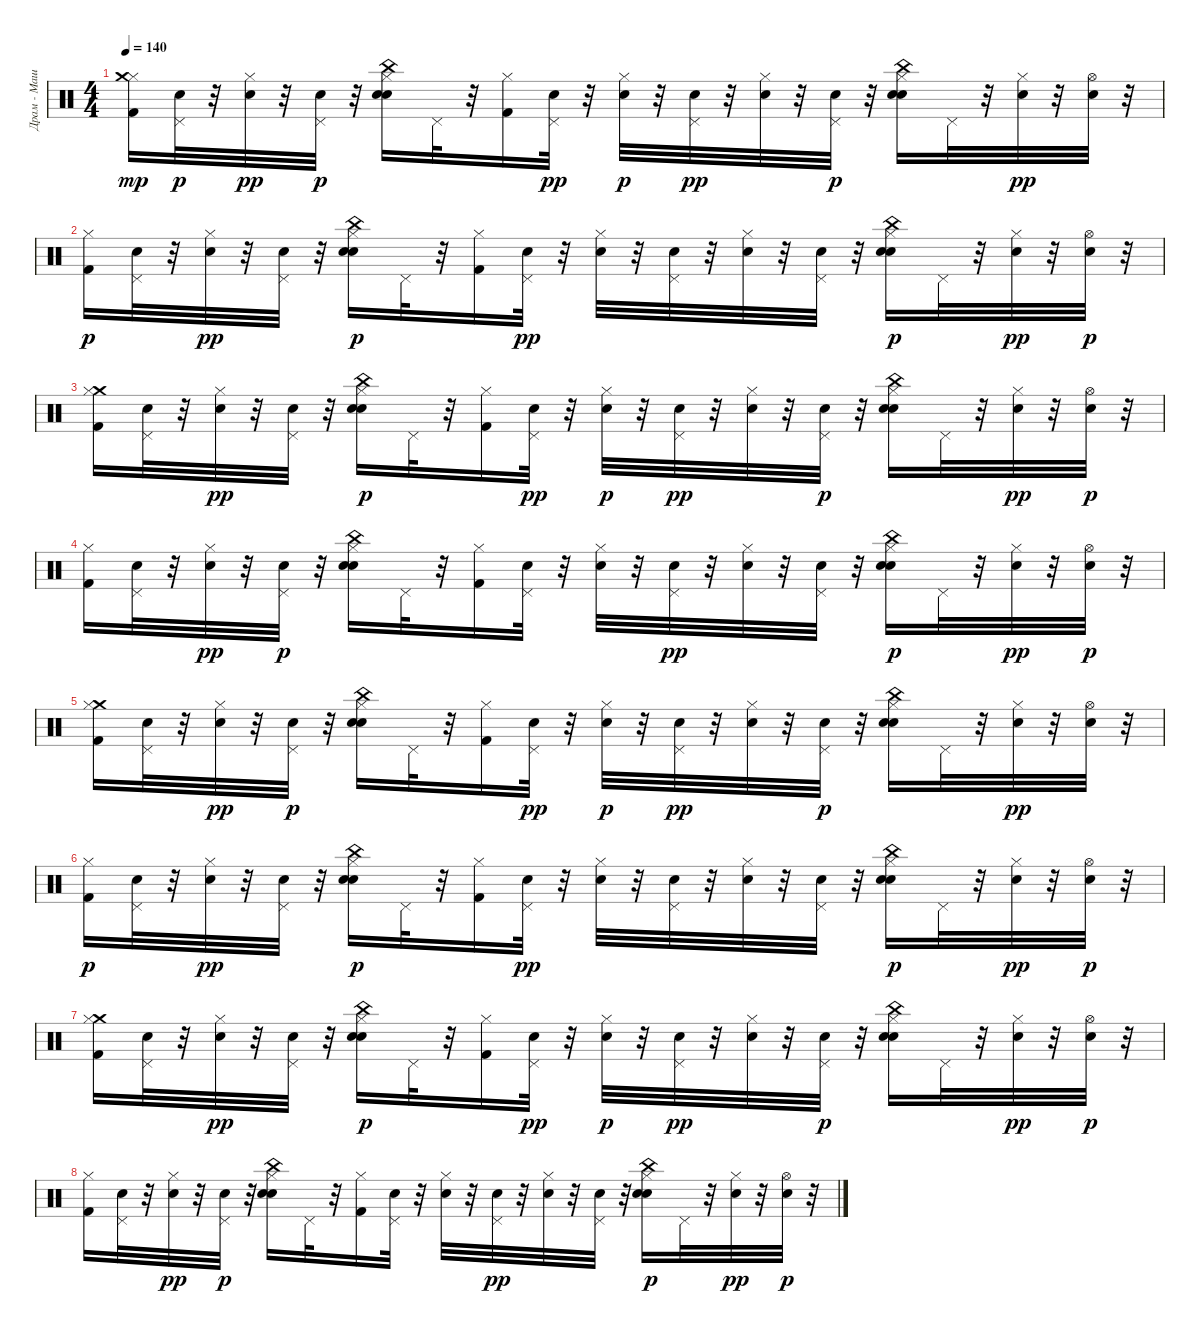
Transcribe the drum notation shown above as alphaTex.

\track ("Драм - Машина" "Драм - Маш") {instrument percussion}
\staff {score}
\articulation defaults
\ts (4 4)
\tempo 140
\clef neutral
\ks c
("Kick (hit) 2" "Hi-Hat (closed)" "Crash medium (hit)").16{dy mp} ("Snare (hit) 2" "Pedal Hi-Hat (hit)").32{dy p} r.32 ("Hi-Hat (closed)" "Snare (hit) 2").32{dy pp} r.32 ("Snare (hit) 2" "Pedal Hi-Hat (hit)").32{dy p} r.32 ("Electric Snare (hit)" "China (hit)" "Hand Clap (hit)" "Hi-Hat (closed)").16 "Pedal Hi-Hat (hit)".32 r.32 ("Hi-Hat (closed)" "Kick (hit) 2").16 ("Pedal Hi-Hat (hit)" "Snare (hit) 2").32{dy pp} r.32 ("Snare (hit) 2" "Hi-Hat (closed)").32{dy p} r.32 ("Pedal Hi-Hat (hit)" "Snare (hit) 2").32{dy pp} r.32 ("Hi-Hat (closed)" "Snare (hit) 2").32 r.32 ("Snare (hit) 2" "Pedal Hi-Hat (hit)").32{dy p} r.32 ("Electric Snare (hit)" "Hand Clap (hit)" "China (hit)" "Hi-Hat (closed)").16 "Pedal Hi-Hat (hit)".32 r.32 ("Hi-Hat (closed)" "Snare (hit) 2").32{dy pp} r.32 ("Hi-Hat (open)" "Snare (hit) 2").32 r.32 |
("Hi-Hat (closed)" "Kick (hit) 2").16{dy p} ("Snare (hit) 2" "Pedal Hi-Hat (hit)").32 r.32 ("Hi-Hat (closed)" "Snare (hit) 2").32{dy pp} r.32 ("Pedal Hi-Hat (hit)" "Snare (hit) 2").32 r.32 ("Hi-Hat (closed)" "Electric Snare (hit)" "Hand Clap (hit)" "China (hit)").16{dy p} "Pedal Hi-Hat (hit)".32 r.32 ("Hi-Hat (closed)" "Kick (hit) 2").16 ("Pedal Hi-Hat (hit)" "Snare (hit) 2").32{dy pp} r.32 ("Hi-Hat (closed)" "Snare (hit) 2").32 r.32 ("Pedal Hi-Hat (hit)" "Snare (hit) 2").32 r.32 ("Hi-Hat (closed)" "Snare (hit) 2").32 r.32 ("Pedal Hi-Hat (hit)" "Snare (hit) 2").32 r.32 ("Hi-Hat (closed)" "Electric Snare (hit)" "Hand Clap (hit)" "China (hit)").16{dy p} "Pedal Hi-Hat (hit)".32 r.32 ("Hi-Hat (closed)" "Snare (hit) 2").32{dy pp} r.32 ("Snare (hit) 2" "Hi-Hat (open)").32{dy p} r.32 |
("Crash medium (hit)" "Kick (hit) 2" "Hi-Hat (closed)").16 ("Snare (hit) 2" "Pedal Hi-Hat (hit)").32 r.32 ("Hi-Hat (closed)" "Snare (hit) 2").32{dy pp} r.32 ("Pedal Hi-Hat (hit)" "Snare (hit) 2").32 r.32 ("Hi-Hat (closed)" "Electric Snare (hit)" "Hand Clap (hit)" "China (hit)").16{dy p} "Pedal Hi-Hat (hit)".32 r.32 ("Hi-Hat (closed)" "Kick (hit) 2").16 ("Pedal Hi-Hat (hit)" "Snare (hit) 2").32{dy pp} r.32 ("Snare (hit) 2" "Hi-Hat (closed)").32{dy p} r.32 ("Pedal Hi-Hat (hit)" "Snare (hit) 2").32{dy pp} r.32 ("Hi-Hat (closed)" "Snare (hit) 2").32 r.32 ("Snare (hit) 2" "Pedal Hi-Hat (hit)").32{dy p} r.32 ("Electric Snare (hit)" "China (hit)" "Hand Clap (hit)" "Hi-Hat (closed)").16 "Pedal Hi-Hat (hit)".32 r.32 ("Hi-Hat (closed)" "Snare (hit) 2").32{dy pp} r.32 ("Snare (hit) 2" "Hi-Hat (open)").32{dy p} r.32 |
("Kick (hit) 2" "Hi-Hat (closed)").16 ("Snare (hit) 2" "Pedal Hi-Hat (hit)").32 r.32 ("Hi-Hat (closed)" "Snare (hit) 2").32{dy pp} r.32 ("Snare (hit) 2" "Pedal Hi-Hat (hit)").32{dy p} r.32 ("Electric Snare (hit)" "Hand Clap (hit)" "China (hit)" "Hi-Hat (closed)").16 "Pedal Hi-Hat (hit)".32 r.32 ("Hi-Hat (closed)" "Kick (hit) 2").16 ("Snare (hit) 2" "Pedal Hi-Hat (hit)").32 r.32 ("Snare (hit) 2" "Hi-Hat (closed)").32 r.32 ("Pedal Hi-Hat (hit)" "Snare (hit) 2").32{dy pp} r.32 ("Hi-Hat (closed)" "Snare (hit) 2").32 r.32 ("Pedal Hi-Hat (hit)" "Snare (hit) 2").32 r.32 ("Hi-Hat (closed)" "Electric Snare (hit)" "Hand Clap (hit)" "China (hit)").16{dy p} "Pedal Hi-Hat (hit)".32 r.32 ("Hi-Hat (closed)" "Snare (hit) 2").32{dy pp} r.32 ("Snare (hit) 2" "Hi-Hat (open)").32{dy p} r.32 |
("Crash medium (hit)" "Kick (hit) 2" "Hi-Hat (closed)").16 ("Snare (hit) 2" "Pedal Hi-Hat (hit)").32 r.32 ("Hi-Hat (closed)" "Snare (hit) 2").32{dy pp} r.32 ("Snare (hit) 2" "Pedal Hi-Hat (hit)").32{dy p} r.32 ("Electric Snare (hit)" "China (hit)" "Hand Clap (hit)" "Hi-Hat (closed)").16 "Pedal Hi-Hat (hit)".32 r.32 ("Hi-Hat (closed)" "Kick (hit) 2").16 ("Pedal Hi-Hat (hit)" "Snare (hit) 2").32{dy pp} r.32 ("Snare (hit) 2" "Hi-Hat (closed)").32{dy p} r.32 ("Pedal Hi-Hat (hit)" "Snare (hit) 2").32{dy pp} r.32 ("Hi-Hat (closed)" "Snare (hit) 2").32 r.32 ("Snare (hit) 2" "Pedal Hi-Hat (hit)").32{dy p} r.32 ("Electric Snare (hit)" "Hand Clap (hit)" "China (hit)" "Hi-Hat (closed)").16 "Pedal Hi-Hat (hit)".32 r.32 ("Hi-Hat (closed)" "Snare (hit) 2").32{dy pp} r.32 ("Hi-Hat (open)" "Snare (hit) 2").32 r.32 |
("Hi-Hat (closed)" "Kick (hit) 2").16{dy p} ("Snare (hit) 2" "Pedal Hi-Hat (hit)").32 r.32 ("Hi-Hat (closed)" "Snare (hit) 2").32{dy pp} r.32 ("Pedal Hi-Hat (hit)" "Snare (hit) 2").32 r.32 ("Hi-Hat (closed)" "Electric Snare (hit)" "Hand Clap (hit)" "China (hit)").16{dy p} "Pedal Hi-Hat (hit)".32 r.32 ("Hi-Hat (closed)" "Kick (hit) 2").16 ("Pedal Hi-Hat (hit)" "Snare (hit) 2").32{dy pp} r.32 ("Hi-Hat (closed)" "Snare (hit) 2").32 r.32 ("Pedal Hi-Hat (hit)" "Snare (hit) 2").32 r.32 ("Hi-Hat (closed)" "Snare (hit) 2").32 r.32 ("Pedal Hi-Hat (hit)" "Snare (hit) 2").32 r.32 ("Hi-Hat (closed)" "Electric Snare (hit)" "Hand Clap (hit)" "China (hit)").16{dy p} "Pedal Hi-Hat (hit)".32 r.32 ("Hi-Hat (closed)" "Snare (hit) 2").32{dy pp} r.32 ("Snare (hit) 2" "Hi-Hat (open)").32{dy p} r.32 |
("Crash medium (hit)" "Kick (hit) 2" "Hi-Hat (closed)").16 ("Snare (hit) 2" "Pedal Hi-Hat (hit)").32 r.32 ("Hi-Hat (closed)" "Snare (hit) 2").32{dy pp} r.32 ("Pedal Hi-Hat (hit)" "Snare (hit) 2").32 r.32 ("Hi-Hat (closed)" "Electric Snare (hit)" "Hand Clap (hit)" "China (hit)").16{dy p} "Pedal Hi-Hat (hit)".32 r.32 ("Hi-Hat (closed)" "Kick (hit) 2").16 ("Pedal Hi-Hat (hit)" "Snare (hit) 2").32{dy pp} r.32 ("Snare (hit) 2" "Hi-Hat (closed)").32{dy p} r.32 ("Pedal Hi-Hat (hit)" "Snare (hit) 2").32{dy pp} r.32 ("Hi-Hat (closed)" "Snare (hit) 2").32 r.32 ("Snare (hit) 2" "Pedal Hi-Hat (hit)").32{dy p} r.32 ("Electric Snare (hit)" "China (hit)" "Hand Clap (hit)" "Hi-Hat (closed)").16 "Pedal Hi-Hat (hit)".32 r.32 ("Hi-Hat (closed)" "Snare (hit) 2").32{dy pp} r.32 ("Snare (hit) 2" "Hi-Hat (open)").32{dy p} r.32 |
("Kick (hit) 2" "Hi-Hat (closed)").16 ("Snare (hit) 2" "Pedal Hi-Hat (hit)").32 r.32 ("Hi-Hat (closed)" "Snare (hit) 2").32{dy pp} r.32 ("Snare (hit) 2" "Pedal Hi-Hat (hit)").32{dy p} r.32 ("Electric Snare (hit)" "Hand Clap (hit)" "China (hit)" "Hi-Hat (closed)").16 "Pedal Hi-Hat (hit)".32 r.32 ("Hi-Hat (closed)" "Kick (hit) 2").16 ("Snare (hit) 2" "Pedal Hi-Hat (hit)").32 r.32 ("Snare (hit) 2" "Hi-Hat (closed)").32 r.32 ("Pedal Hi-Hat (hit)" "Snare (hit) 2").32{dy pp} r.32 ("Hi-Hat (closed)" "Snare (hit) 2").32 r.32 ("Pedal Hi-Hat (hit)" "Snare (hit) 2").32 r.32 ("Hi-Hat (closed)" "Electric Snare (hit)" "Hand Clap (hit)" "China (hit)").16{dy p} "Pedal Hi-Hat (hit)".32 r.32 ("Hi-Hat (closed)" "Snare (hit) 2").32{dy pp} r.32 ("Snare (hit) 2" "Hi-Hat (open)").32{dy p} r.32
